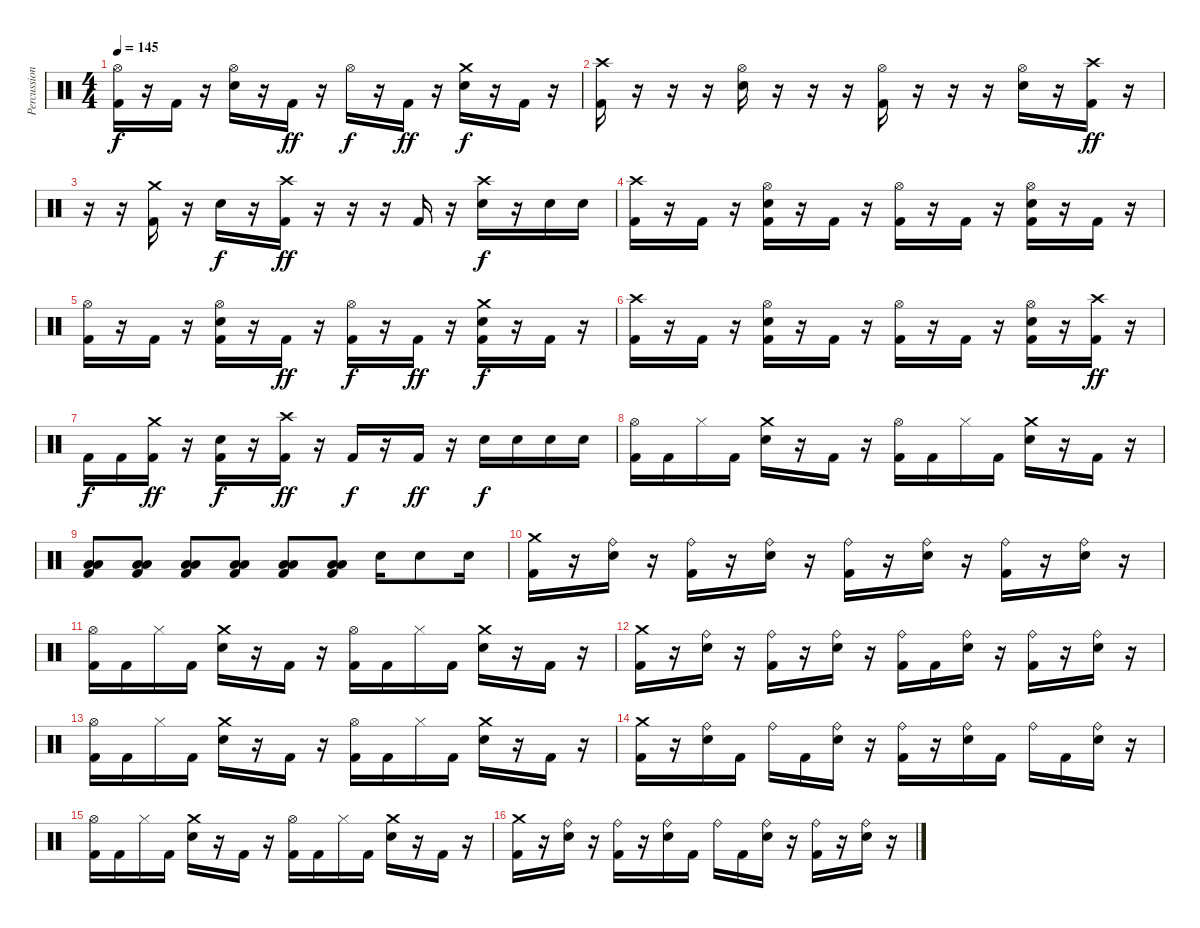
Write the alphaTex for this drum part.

\track ("Percussion" "Percussion") {instrument percussion}
\staff {score}
\articulation defaults
\ts (4 4)
\tempo 145
\clef neutral
\ks c
("Hi-Hat (open)" "Kick (hit) 2").16{dy f} r.16 "Kick (hit) 2".16 r.16 ("Hi-Hat (open)" "Snare (hit) 2").16 r.16 "Kick (hit) 2".16{dy ff} r.16 "Hi-Hat (open)".16{dy f} r.16 "Kick (hit) 2".16{dy ff} r.16 ("Crash medium (hit)" "Snare (hit) 2").16{dy f} r.16 "Kick (hit) 2".16 r.16 |
("Crash high (hit)" "Kick (hit) 2").16 r.16 r.16 r.16 ("Hi-Hat (open)" "Snare (hit) 2").16 r.16 r.16 r.16 ("Hi-Hat (open)" "Kick (hit) 2").16 r.16 r.16 r.16 ("Hi-Hat (open)" "Snare (hit) 2").16 r.16 ("Crash high (hit)" "Kick (hit) 2").16{dy ff} r.16 |
r.16 r.16 ("Crash medium (hit)" "Kick (hit) 2").16 r.16 "Snare (hit) 2".16{dy f} r.16 ("Crash high (hit)" "Kick (hit) 2").16{dy ff} r.16 r.16 r.16 "Kick (hit) 2".16 r.16 ("Crash high (hit)" "Snare (hit) 2").16{dy f} r.16 "Snare (hit) 2".16 "Snare (hit) 2".16 |
("Crash high (hit)" "Kick (hit) 2").16 r.16 "Kick (hit) 2".16 r.16 ("Hi-Hat (open)" "Snare (hit) 2" "Kick (hit) 2").16 r.16 "Kick (hit) 2".16 r.16 ("Hi-Hat (open)" "Kick (hit) 2").16 r.16 "Kick (hit) 2".16 r.16 ("Hi-Hat (open)" "Snare (hit) 2" "Kick (hit) 2").16 r.16 "Kick (hit) 2".16 r.16 |
("Hi-Hat (open)" "Kick (hit) 2").16 r.16 "Kick (hit) 2".16 r.16 ("Hi-Hat (open)" "Snare (hit) 2" "Kick (hit) 2").16 r.16 "Kick (hit) 2".16{dy ff} r.16 ("Hi-Hat (open)" "Kick (hit) 2").16{dy f} r.16 "Kick (hit) 2".16{dy ff} r.16 ("Crash medium (hit)" "Snare (hit) 2" "Kick (hit) 2").16{dy f} r.16 "Kick (hit) 2".16 r.16 |
("Crash high (hit)" "Kick (hit) 2").16 r.16 "Kick (hit) 2".16 r.16 ("Hi-Hat (open)" "Snare (hit) 2" "Kick (hit) 2").16 r.16 "Kick (hit) 2".16 r.16 ("Hi-Hat (open)" "Kick (hit) 2").16 r.16 "Kick (hit) 2".16 r.16 ("Hi-Hat (open)" "Snare (hit) 2" "Kick (hit) 2").16 r.16 ("Crash high (hit)" "Kick (hit) 2").16{dy ff} r.16 |
"Kick (hit) 2".16{dy f} "Kick (hit) 2".16 ("Crash medium (hit)" "Kick (hit) 2").16{dy ff} r.16 ("Snare (hit) 2" "Kick (hit) 2").16{dy f} r.16 ("Crash high (hit)" "Kick (hit) 2").16{dy ff} r.16 "Kick (hit) 2".16{dy f} r.16 "Kick (hit) 2".16{dy ff} r.16 "Snare (hit) 2".16{dy f} "Snare (hit) 2".16 "Snare (hit) 2".16 "Snare (hit) 2".16 |
("Hi-Hat (open)" "Kick (hit) 2").16 "Kick (hit) 2".16 "Hi-Hat (closed)".16 "Kick (hit) 2".16 ("Crash medium (hit)" "Snare (hit) 2").16 r.16 "Kick (hit) 2".16 r.16 ("Hi-Hat (open)" "Kick (hit) 2").16 "Kick (hit) 2".16 "Hi-Hat (closed)".16 "Kick (hit) 2".16 ("Crash medium (hit)" "Snare (hit) 2").16 r.16 "Kick (hit) 2".16 r.16 |
("Low Tom (hit)" "Low Floor Tom (hit)" "Kick (hit) 2").8 ("Low Tom (hit)" "Low Floor Tom (hit)" "Kick (hit) 2").8 ("Low Tom (hit)" "Low Floor Tom (hit)" "Kick (hit) 2").8 ("Low Tom (hit)" "Low Floor Tom (hit)" "Kick (hit) 2").8 ("Low Tom (hit)" "Low Floor Tom (hit)" "Kick (hit) 2").8 ("Low Tom (hit)" "Low Floor Tom (hit)" "Kick (hit) 2").8 "Snare (hit) 2".16 "Snare (hit) 2".8 "Snare (hit) 2".16 |
("Crash medium (hit)" "Kick (hit) 2").16 r.16 ("Ride (bell)" "Snare (hit) 2").16 r.16 ("Ride (bell)" "Kick (hit) 2").16 r.16 ("Ride (bell)" "Snare (hit) 2").16 r.16 ("Ride (bell)" "Kick (hit) 2").16 r.16 ("Ride (bell)" "Snare (hit) 2").16 r.16 ("Ride (bell)" "Kick (hit) 2").16 r.16 ("Ride (bell)" "Snare (hit) 2").16 r.16 |
("Hi-Hat (open)" "Kick (hit) 2").16 "Kick (hit) 2".16 "Hi-Hat (closed)".16 "Kick (hit) 2".16 ("Crash medium (hit)" "Snare (hit) 2").16 r.16 "Kick (hit) 2".16 r.16 ("Hi-Hat (open)" "Kick (hit) 2").16 "Kick (hit) 2".16 "Hi-Hat (closed)".16 "Kick (hit) 2".16 ("Crash medium (hit)" "Snare (hit) 2").16 r.16 "Kick (hit) 2".16 r.16 |
("Crash medium (hit)" "Kick (hit) 2").16 r.16 ("Ride (bell)" "Snare (hit) 2").16 r.16 ("Ride (bell)" "Kick (hit) 2").16 r.16 ("Ride (bell)" "Snare (hit) 2").16 r.16 ("Ride (bell)" "Kick (hit) 2").16 "Kick (hit) 2".16 ("Ride (bell)" "Snare (hit) 2").16 r.16 ("Ride (bell)" "Kick (hit) 2").16 r.16 ("Ride (bell)" "Snare (hit) 2").16 r.16 |
("Hi-Hat (open)" "Kick (hit) 2").16 "Kick (hit) 2".16 "Hi-Hat (closed)".16 "Kick (hit) 2".16 ("Crash medium (hit)" "Snare (hit) 2").16 r.16 "Kick (hit) 2".16 r.16 ("Hi-Hat (open)" "Kick (hit) 2").16 "Kick (hit) 2".16 "Hi-Hat (closed)".16 "Kick (hit) 2".16 ("Crash medium (hit)" "Snare (hit) 2").16 r.16 "Kick (hit) 2".16 r.16 |
("Crash medium (hit)" "Kick (hit) 2").16 r.16 ("Ride (bell)" "Snare (hit) 2").16 "Kick (hit) 2".16 "Ride (bell)".16 "Kick (hit) 2".16 ("Ride (bell)" "Snare (hit) 2").16 r.16 ("Ride (bell)" "Kick (hit) 2").16 r.16 ("Ride (bell)" "Snare (hit) 2").16 "Kick (hit) 2".16 "Ride (bell)".16 "Kick (hit) 2".16 ("Ride (bell)" "Snare (hit) 2").16 r.16 |
("Hi-Hat (open)" "Kick (hit) 2").16 "Kick (hit) 2".16 "Hi-Hat (closed)".16 "Kick (hit) 2".16 ("Crash medium (hit)" "Snare (hit) 2").16 r.16 "Kick (hit) 2".16 r.16 ("Hi-Hat (open)" "Kick (hit) 2").16 "Kick (hit) 2".16 "Hi-Hat (closed)".16 "Kick (hit) 2".16 ("Crash medium (hit)" "Snare (hit) 2").16 r.16 "Kick (hit) 2".16 r.16 |
("Crash medium (hit)" "Kick (hit) 2").16 r.16 ("Ride (bell)" "Snare (hit) 2").16 r.16 ("Ride (bell)" "Kick (hit) 2").16 r.16 ("Ride (bell)" "Snare (hit) 2").16 "Kick (hit) 2".16 "Ride (bell)".16 "Kick (hit) 2".16 ("Ride (bell)" "Snare (hit) 2").16 r.16 ("Ride (bell)" "Kick (hit) 2").16 r.16 ("Ride (bell)" "Snare (hit) 2").16 r.16
